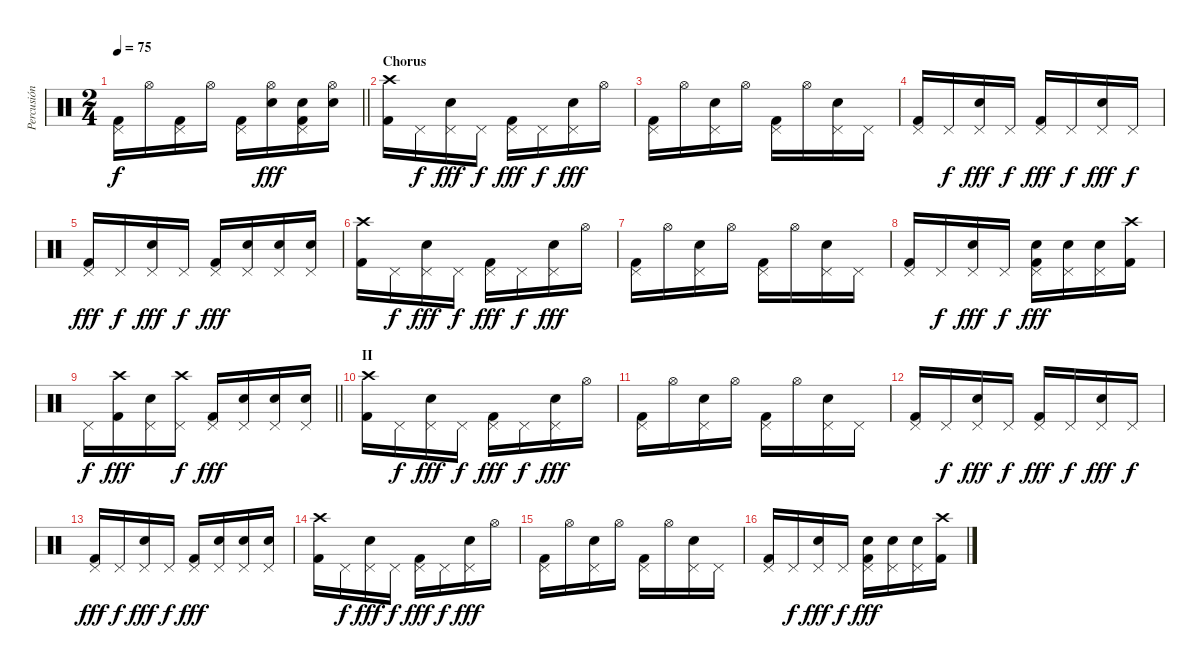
\track ("Percusión" "Percusión") {instrument percussion}
\staff {score}
\articulation defaults
\ts (2 4)
\tempo 75
\clef neutral
\barLineRight lightlight
\ks c
("Pedal Hi-Hat (hit)" "Kick (hit) 2").16{dy f} "Hi-Hat (open)".16 ("Pedal Hi-Hat (hit)" "Kick (hit) 2").16 "Hi-Hat (open)".16 ("Pedal Hi-Hat (hit)" "Kick (hit) 2").16 ("Hi-Hat (open)" "Snare (hit) 2").16{dy fff} ("Pedal Hi-Hat (hit)" "Snare (hit) 2" "Kick (hit) 2").16 ("Hi-Hat (open)" "Snare (hit) 2").16 |
\section ("" "Chorus")
("Crash high (hit)" "Kick (hit) 2").16 "Pedal Hi-Hat (hit)".16{dy f} ("Pedal Hi-Hat (hit)" "Snare (hit) 2").16{dy fff} "Pedal Hi-Hat (hit)".16{dy f} ("Pedal Hi-Hat (hit)" "Kick (hit) 2").16{dy fff} "Pedal Hi-Hat (hit)".16{dy f} ("Pedal Hi-Hat (hit)" "Snare (hit) 2").16{dy fff} "Hi-Hat (open)".16 |
("Pedal Hi-Hat (hit)" "Kick (hit) 2").16 "Hi-Hat (open)".16 ("Pedal Hi-Hat (hit)" "Snare (hit) 2").16 "Hi-Hat (open)".16 ("Pedal Hi-Hat (hit)" "Kick (hit) 2").16 "Hi-Hat (open)".16 ("Pedal Hi-Hat (hit)" "Snare (hit) 2").16 "Pedal Hi-Hat (hit)".16 |
("Pedal Hi-Hat (hit)" "Kick (hit) 2").16 "Pedal Hi-Hat (hit)".16{dy f} ("Pedal Hi-Hat (hit)" "Snare (hit) 2").16{dy fff} "Pedal Hi-Hat (hit)".16{dy f} ("Pedal Hi-Hat (hit)" "Kick (hit) 2").16{dy fff} "Pedal Hi-Hat (hit)".16{dy f} ("Pedal Hi-Hat (hit)" "Snare (hit) 2").16{dy fff} "Pedal Hi-Hat (hit)".16{dy f} |
("Pedal Hi-Hat (hit)" "Kick (hit) 2").16{dy fff} "Pedal Hi-Hat (hit)".16{dy f} ("Pedal Hi-Hat (hit)" "Snare (hit) 2").16{dy fff} "Pedal Hi-Hat (hit)".16{dy f} ("Pedal Hi-Hat (hit)" "Kick (hit) 2").16{dy fff} ("Pedal Hi-Hat (hit)" "Snare (hit) 2").16 ("Pedal Hi-Hat (hit)" "Snare (hit) 2").16 ("Pedal Hi-Hat (hit)" "Snare (hit) 2").16 |
("Crash high (hit)" "Kick (hit) 2").16 "Pedal Hi-Hat (hit)".16{dy f} ("Pedal Hi-Hat (hit)" "Snare (hit) 2").16{dy fff} "Pedal Hi-Hat (hit)".16{dy f} ("Pedal Hi-Hat (hit)" "Kick (hit) 2").16{dy fff} "Pedal Hi-Hat (hit)".16{dy f} ("Pedal Hi-Hat (hit)" "Snare (hit) 2").16{dy fff} "Hi-Hat (open)".16 |
("Pedal Hi-Hat (hit)" "Kick (hit) 2").16 "Hi-Hat (open)".16 ("Pedal Hi-Hat (hit)" "Snare (hit) 2").16 "Hi-Hat (open)".16 ("Pedal Hi-Hat (hit)" "Kick (hit) 2").16 "Hi-Hat (open)".16 ("Pedal Hi-Hat (hit)" "Snare (hit) 2").16 "Pedal Hi-Hat (hit)".16 |
("Pedal Hi-Hat (hit)" "Kick (hit) 2").16 "Pedal Hi-Hat (hit)".16{dy f} ("Pedal Hi-Hat (hit)" "Snare (hit) 2").16{dy fff} "Pedal Hi-Hat (hit)".16{dy f} ("Pedal Hi-Hat (hit)" "Snare (hit) 2" "Kick (hit) 2").16{dy fff} ("Pedal Hi-Hat (hit)" "Snare (hit) 2").16 ("Pedal Hi-Hat (hit)" "Snare (hit) 2").16 ("Crash high (hit)" "Kick (hit) 2").16 |
\barLineRight lightlight "Pedal Hi-Hat (hit)".16{dy f}
("Crash high (hit)" "Kick (hit) 2").16{dy fff} ("Pedal Hi-Hat (hit)" "Snare (hit) 2").16 ("Crash high (hit)" "Pedal Hi-Hat (hit)").16{dy f} ("Pedal Hi-Hat (hit)" "Kick (hit) 2").16{dy fff} ("Pedal Hi-Hat (hit)" "Snare (hit) 2").16 ("Pedal Hi-Hat (hit)" "Snare (hit) 2").16 ("Pedal Hi-Hat (hit)" "Snare (hit) 2").16 |
\section ("" "II")
("Crash high (hit)" "Kick (hit) 2").16 "Pedal Hi-Hat (hit)".16{dy f} ("Pedal Hi-Hat (hit)" "Snare (hit) 2").16{dy fff} "Pedal Hi-Hat (hit)".16{dy f} ("Pedal Hi-Hat (hit)" "Kick (hit) 2").16{dy fff} "Pedal Hi-Hat (hit)".16{dy f} ("Pedal Hi-Hat (hit)" "Snare (hit) 2").16{dy fff} "Hi-Hat (open)".16 |
("Pedal Hi-Hat (hit)" "Kick (hit) 2").16 "Hi-Hat (open)".16 ("Pedal Hi-Hat (hit)" "Snare (hit) 2").16 "Hi-Hat (open)".16 ("Pedal Hi-Hat (hit)" "Kick (hit) 2").16 "Hi-Hat (open)".16 ("Pedal Hi-Hat (hit)" "Snare (hit) 2").16 "Pedal Hi-Hat (hit)".16 |
("Pedal Hi-Hat (hit)" "Kick (hit) 2").16 "Pedal Hi-Hat (hit)".16{dy f} ("Pedal Hi-Hat (hit)" "Snare (hit) 2").16{dy fff} "Pedal Hi-Hat (hit)".16{dy f} ("Pedal Hi-Hat (hit)" "Kick (hit) 2").16{dy fff} "Pedal Hi-Hat (hit)".16{dy f} ("Pedal Hi-Hat (hit)" "Snare (hit) 2").16{dy fff} "Pedal Hi-Hat (hit)".16{dy f} |
("Pedal Hi-Hat (hit)" "Kick (hit) 2").16{dy fff} "Pedal Hi-Hat (hit)".16{dy f} ("Pedal Hi-Hat (hit)" "Snare (hit) 2").16{dy fff} "Pedal Hi-Hat (hit)".16{dy f} ("Pedal Hi-Hat (hit)" "Kick (hit) 2").16{dy fff} ("Pedal Hi-Hat (hit)" "Snare (hit) 2").16 ("Pedal Hi-Hat (hit)" "Snare (hit) 2").16 ("Pedal Hi-Hat (hit)" "Snare (hit) 2").16 |
("Crash high (hit)" "Kick (hit) 2").16 "Pedal Hi-Hat (hit)".16{dy f} ("Pedal Hi-Hat (hit)" "Snare (hit) 2").16{dy fff} "Pedal Hi-Hat (hit)".16{dy f} ("Pedal Hi-Hat (hit)" "Kick (hit) 2").16{dy fff} "Pedal Hi-Hat (hit)".16{dy f} ("Pedal Hi-Hat (hit)" "Snare (hit) 2").16{dy fff} "Hi-Hat (open)".16 |
("Pedal Hi-Hat (hit)" "Kick (hit) 2").16 "Hi-Hat (open)".16 ("Pedal Hi-Hat (hit)" "Snare (hit) 2").16 "Hi-Hat (open)".16 ("Pedal Hi-Hat (hit)" "Kick (hit) 2").16 "Hi-Hat (open)".16 ("Pedal Hi-Hat (hit)" "Snare (hit) 2").16 "Pedal Hi-Hat (hit)".16 |
("Pedal Hi-Hat (hit)" "Kick (hit) 2").16 "Pedal Hi-Hat (hit)".16{dy f} ("Pedal Hi-Hat (hit)" "Snare (hit) 2").16{dy fff} "Pedal Hi-Hat (hit)".16{dy f} ("Pedal Hi-Hat (hit)" "Snare (hit) 2" "Kick (hit) 2").16{dy fff} ("Pedal Hi-Hat (hit)" "Snare (hit) 2").16 ("Pedal Hi-Hat (hit)" "Snare (hit) 2").16 ("Crash high (hit)" "Kick (hit) 2").16
